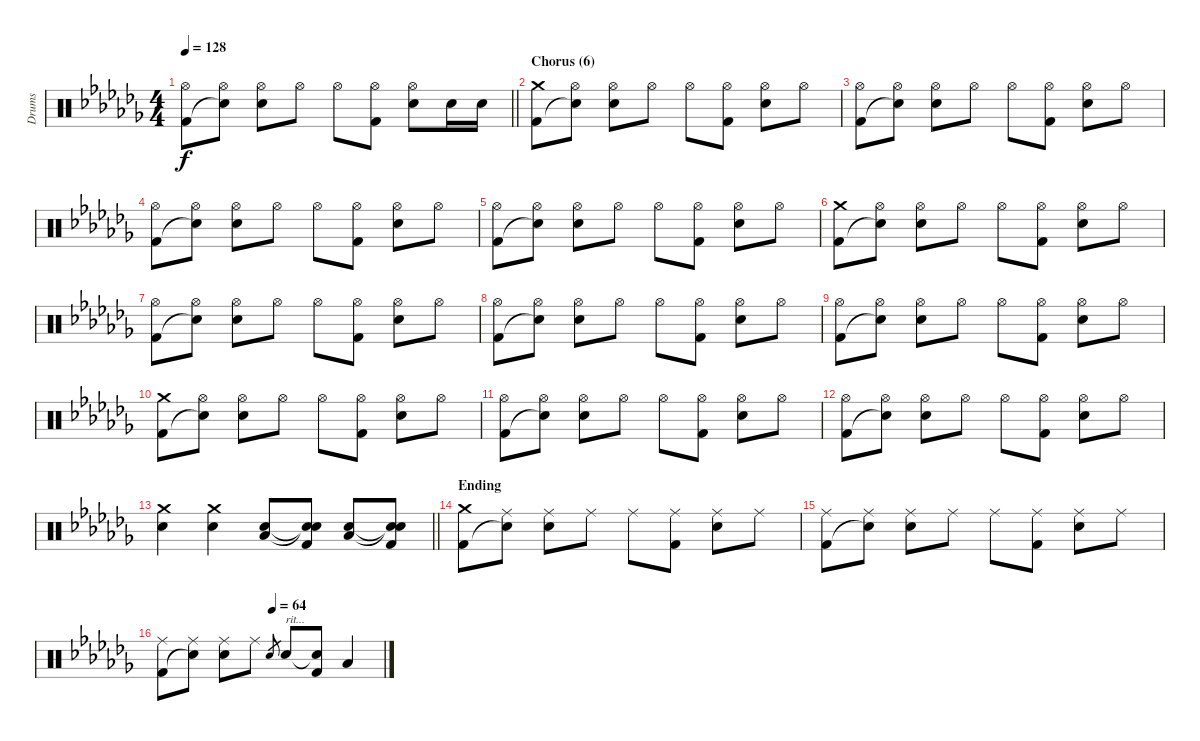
\track ("Drums" "Drums") {instrument percussion}
\staff {score}
\articulation defaults
\ts (4 4)
\tempo 128
\clef neutral
\barLineRight lightlight
\ks abminor
("Hi-Hat (open)" "Kick (hit) 2").8{dy f} ("Hi-Hat (open)" "Snare (hit)"{t}).8 ("Hi-Hat (open)" "Electric Snare (hit)").8 "Hi-Hat (open)".8 "Hi-Hat (open)".8 ("Hi-Hat (open)" "Kick (hit) 2").8 ("Hi-Hat (open)" "Electric Snare (hit)").8 "Electric Snare (hit)".16 "Electric Snare (hit)".16 |
\section ("" "Chorus (6)")
("Crash medium (hit)" "Kick (hit) 2").8 ("Hi-Hat (open)" "Snare (hit)"{t}).8 ("Hi-Hat (open)" "Electric Snare (hit)").8 "Hi-Hat (open)".8 "Hi-Hat (open)".8 ("Hi-Hat (open)" "Kick (hit) 2").8 ("Hi-Hat (open)" "Electric Snare (hit)").8 "Hi-Hat (open)".8 |
("Hi-Hat (open)" "Kick (hit) 2").8 ("Hi-Hat (open)" "Snare (hit)"{t}).8 ("Hi-Hat (open)" "Electric Snare (hit)").8 "Hi-Hat (open)".8 "Hi-Hat (open)".8 ("Hi-Hat (open)" "Kick (hit) 2").8 ("Hi-Hat (open)" "Electric Snare (hit)").8 "Hi-Hat (open)".8 |
("Hi-Hat (open)" "Kick (hit) 2").8 ("Hi-Hat (open)" "Snare (hit)"{t}).8 ("Hi-Hat (open)" "Electric Snare (hit)").8 "Hi-Hat (open)".8 "Hi-Hat (open)".8 ("Hi-Hat (open)" "Kick (hit) 2").8 ("Hi-Hat (open)" "Electric Snare (hit)").8 "Hi-Hat (open)".8 |
("Hi-Hat (open)" "Kick (hit) 2").8 ("Hi-Hat (open)" "Snare (hit)"{t}).8 ("Hi-Hat (open)" "Electric Snare (hit)").8 "Hi-Hat (open)".8 "Hi-Hat (open)".8 ("Hi-Hat (open)" "Kick (hit) 2").8 ("Hi-Hat (open)" "Electric Snare (hit)").8 "Hi-Hat (open)".8 |
("Crash medium (hit)" "Kick (hit) 2").8 ("Hi-Hat (open)" "Snare (hit)"{t}).8 ("Hi-Hat (open)" "Electric Snare (hit)").8 "Hi-Hat (open)".8 "Hi-Hat (open)".8 ("Hi-Hat (open)" "Kick (hit) 2").8 ("Hi-Hat (open)" "Electric Snare (hit)").8 "Hi-Hat (open)".8 |
("Hi-Hat (open)" "Kick (hit) 2").8 ("Hi-Hat (open)" "Snare (hit)"{t}).8 ("Hi-Hat (open)" "Electric Snare (hit)").8 "Hi-Hat (open)".8 "Hi-Hat (open)".8 ("Hi-Hat (open)" "Kick (hit) 2").8 ("Hi-Hat (open)" "Electric Snare (hit)").8 "Hi-Hat (open)".8 |
("Hi-Hat (open)" "Kick (hit) 2").8 ("Hi-Hat (open)" "Snare (hit)"{t}).8 ("Hi-Hat (open)" "Electric Snare (hit)").8 "Hi-Hat (open)".8 "Hi-Hat (open)".8 ("Hi-Hat (open)" "Kick (hit) 2").8 ("Hi-Hat (open)" "Electric Snare (hit)").8 "Hi-Hat (open)".8 |
("Hi-Hat (open)" "Kick (hit) 2").8 ("Hi-Hat (open)" "Snare (hit)"{t}).8 ("Hi-Hat (open)" "Electric Snare (hit)").8 "Hi-Hat (open)".8 "Hi-Hat (open)".8 ("Hi-Hat (open)" "Kick (hit) 2").8 ("Hi-Hat (open)" "Electric Snare (hit)").8 "Hi-Hat (open)".8 |
("Crash medium (hit)" "Kick (hit) 2").8 ("Hi-Hat (open)" "Snare (hit)"{t}).8 ("Hi-Hat (open)" "Electric Snare (hit)").8 "Hi-Hat (open)".8 "Hi-Hat (open)".8 ("Hi-Hat (open)" "Kick (hit) 2").8 ("Hi-Hat (open)" "Electric Snare (hit)").8 "Hi-Hat (open)".8 |
("Hi-Hat (open)" "Kick (hit) 2").8 ("Hi-Hat (open)" "Snare (hit)"{t}).8 ("Hi-Hat (open)" "Electric Snare (hit)").8 "Hi-Hat (open)".8 "Hi-Hat (open)".8 ("Hi-Hat (open)" "Kick (hit) 2").8 ("Hi-Hat (open)" "Electric Snare (hit)").8 "Hi-Hat (open)".8 |
("Hi-Hat (open)" "Kick (hit) 2").8 ("Hi-Hat (open)" "Snare (hit)"{t}).8 ("Hi-Hat (open)" "Electric Snare (hit)").8 "Hi-Hat (open)".8 "Hi-Hat (open)".8 ("Hi-Hat (open)" "Kick (hit) 2").8 ("Hi-Hat (open)" "Electric Snare (hit)").8 "Hi-Hat (open)".8 |
\barLineRight lightlight
("Crash medium (hit)" "Electric Snare (hit)").4 ("Crash medium (hit)" "Electric Snare (hit)").4 ("Electric Snare (hit)" "Low Floor Tom (hit)").8 ("Snare (hit)"{t} "Snare (hit)"{t} "Kick (hit) 2").8 ("Electric Snare (hit)" "Low Floor Tom (hit)").8 ("Snare (hit)"{t} "Snare (hit)"{t} "Kick (hit) 2").8 |
\section ("" "Ending")
("Crash medium (hit)" "Kick (hit) 2").8 ("Ride (middle)" "Snare (hit)"{t}).8 ("Ride (middle)" "Electric Snare (hit)").8 "Ride (middle)".8 "Ride (middle)".8 ("Ride (middle)" "Kick (hit) 2").8 ("Ride (middle)" "Electric Snare (hit)").8 "Ride (middle)".8 |
("Ride (middle)" "Kick (hit) 2").8 ("Ride (middle)" "Snare (hit)"{t}).8 ("Ride (middle)" "Electric Snare (hit)").8 "Ride (middle)".8 "Ride (middle)".8 ("Ride (middle)" "Kick (hit) 2").8 ("Ride (middle)" "Electric Snare (hit)").8 "Ride (middle)".8 |
\tempo (64 0.5)
("Ride (middle)" "Kick (hit) 2").8 ("Ride (middle)" "Snare (hit)"{t}).8 ("Ride (middle)" "Electric Snare (hit)").8 "Ride (middle)".8 "Electric Snare (hit)".8{gr} "Electric Snare (hit)".8{txt "rit..."} ("Snare (hit)"{t} "Kick (hit) 2").8 "Low Floor Tom (hit)".4
